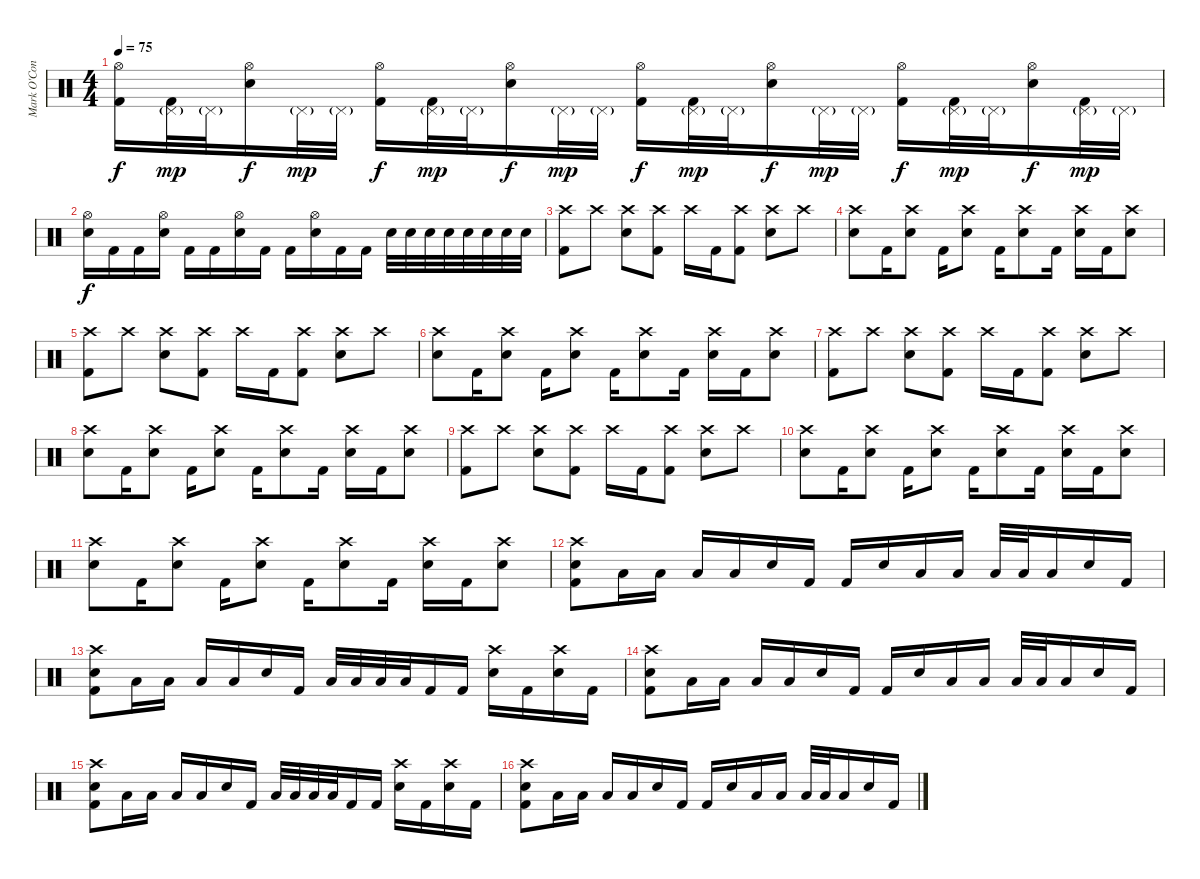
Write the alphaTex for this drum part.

\track ("Mark O'Connell (Drums)" "Mark O'Con") {instrument percussion}
\staff {score}
\articulation defaults
\ts (4 4)
\tempo 75
\clef neutral
\ks c
("Hi-Hat (open)" "Kick (hit) 2").16{dy f} ("Pedal Hi-Hat (hit)"{g} "Kick (hit) 2").32{dy mp} "Pedal Hi-Hat (hit)"{g}.32 ("Hi-Hat (open)" "Electric Snare (hit)").16{dy f} "Pedal Hi-Hat (hit)"{g}.32{dy mp} "Pedal Hi-Hat (hit)"{g}.32 ("Hi-Hat (open)" "Kick (hit) 2").16{dy f} ("Pedal Hi-Hat (hit)"{g} "Kick (hit) 2").32{dy mp} "Pedal Hi-Hat (hit)"{g}.32 ("Hi-Hat (open)" "Electric Snare (hit)").16{dy f} "Pedal Hi-Hat (hit)"{g}.32{dy mp} "Pedal Hi-Hat (hit)"{g}.32 ("Hi-Hat (open)" "Kick (hit) 2").16{dy f} ("Pedal Hi-Hat (hit)"{g} "Kick (hit) 2").32{dy mp} "Pedal Hi-Hat (hit)"{g}.32 ("Hi-Hat (open)" "Electric Snare (hit)").16{dy f} "Pedal Hi-Hat (hit)"{g}.32{dy mp} "Pedal Hi-Hat (hit)"{g}.32 ("Hi-Hat (open)" "Kick (hit) 2").16{dy f} ("Pedal Hi-Hat (hit)"{g} "Kick (hit) 2").32{dy mp} "Pedal Hi-Hat (hit)"{g}.32 ("Hi-Hat (open)" "Electric Snare (hit)").16{dy f} ("Pedal Hi-Hat (hit)"{g} "Kick (hit) 2").32{dy mp} "Pedal Hi-Hat (hit)"{g}.32 |
("Hi-Hat (open)" "Electric Snare (hit)").16{dy f} "Kick (hit) 2".16 "Kick (hit) 2".16 ("Hi-Hat (open)" "Electric Snare (hit)").16 "Kick (hit) 2".16 "Kick (hit) 2".16 ("Hi-Hat (open)" "Electric Snare (hit)").16 "Kick (hit) 2".16 "Kick (hit) 2".16 ("Hi-Hat (open)" "Electric Snare (hit)").16 "Kick (hit) 2".16 "Kick (hit) 2".16 "Electric Snare (hit)".32 "Electric Snare (hit)".32 "Electric Snare (hit)".32 "Electric Snare (hit)".32 "Electric Snare (hit)".32 "Electric Snare (hit)".32 "Electric Snare (hit)".32 "Electric Snare (hit)".32 |
("Crash high (hit)" "Kick (hit) 2").8 "Crash high (hit)".8 ("Crash high (hit)" "Electric Snare (hit)").8 ("Crash high (hit)" "Kick (hit) 2").8 "Crash high (hit)".16 "Kick (hit) 2".16 ("Crash high (hit)" "Kick (hit) 2").8 ("Crash high (hit)" "Electric Snare (hit)").8 "Crash high (hit)".8 |
("Crash high (hit)" "Electric Snare (hit)").8 "Kick (hit) 2".16 ("Crash high (hit)" "Electric Snare (hit)").8 "Kick (hit) 2".16 ("Crash high (hit)" "Electric Snare (hit)").8 "Kick (hit) 2".16 ("Crash high (hit)" "Electric Snare (hit)").8 "Kick (hit) 2".16 ("Crash high (hit)" "Electric Snare (hit)").16 "Kick (hit) 2".16 ("Crash high (hit)" "Electric Snare (hit)").8 |
("Crash high (hit)" "Kick (hit) 2").8 "Crash high (hit)".8 ("Crash high (hit)" "Electric Snare (hit)").8 ("Crash high (hit)" "Kick (hit) 2").8 "Crash high (hit)".16 "Kick (hit) 2".16 ("Crash high (hit)" "Kick (hit) 2").8 ("Crash high (hit)" "Electric Snare (hit)").8 "Crash high (hit)".8 |
("Crash high (hit)" "Electric Snare (hit)").8 "Kick (hit) 2".16 ("Crash high (hit)" "Electric Snare (hit)").8 "Kick (hit) 2".16 ("Crash high (hit)" "Electric Snare (hit)").8 "Kick (hit) 2".16 ("Crash high (hit)" "Electric Snare (hit)").8 "Kick (hit) 2".16 ("Crash high (hit)" "Electric Snare (hit)").16 "Kick (hit) 2".16 ("Crash high (hit)" "Electric Snare (hit)").8 |
("Crash high (hit)" "Kick (hit) 2").8 "Crash high (hit)".8 ("Crash high (hit)" "Electric Snare (hit)").8 ("Crash high (hit)" "Kick (hit) 2").8 "Crash high (hit)".16 "Kick (hit) 2".16 ("Crash high (hit)" "Kick (hit) 2").8 ("Crash high (hit)" "Electric Snare (hit)").8 "Crash high (hit)".8 |
("Crash high (hit)" "Electric Snare (hit)").8 "Kick (hit) 2".16 ("Crash high (hit)" "Electric Snare (hit)").8 "Kick (hit) 2".16 ("Crash high (hit)" "Electric Snare (hit)").8 "Kick (hit) 2".16 ("Crash high (hit)" "Electric Snare (hit)").8 "Kick (hit) 2".16 ("Crash high (hit)" "Electric Snare (hit)").16 "Kick (hit) 2".16 ("Crash high (hit)" "Electric Snare (hit)").8 |
("Crash high (hit)" "Kick (hit) 2").8 "Crash high (hit)".8 ("Crash high (hit)" "Electric Snare (hit)").8 ("Crash high (hit)" "Kick (hit) 2").8 "Crash high (hit)".16 "Kick (hit) 2".16 ("Crash high (hit)" "Kick (hit) 2").8 ("Crash high (hit)" "Electric Snare (hit)").8 "Crash high (hit)".8 |
("Crash high (hit)" "Electric Snare (hit)").8 "Kick (hit) 2".16 ("Crash high (hit)" "Electric Snare (hit)").8 "Kick (hit) 2".16 ("Crash high (hit)" "Electric Snare (hit)").8 "Kick (hit) 2".16 ("Crash high (hit)" "Electric Snare (hit)").8 "Kick (hit) 2".16 ("Crash high (hit)" "Electric Snare (hit)").16 "Kick (hit) 2".16 ("Crash high (hit)" "Electric Snare (hit)").8 |
("Crash high (hit)" "Electric Snare (hit)").8 "Kick (hit) 2".16 ("Crash high (hit)" "Electric Snare (hit)").8 "Kick (hit) 2".16 ("Crash high (hit)" "Electric Snare (hit)").8 "Kick (hit) 2".16 ("Crash high (hit)" "Electric Snare (hit)").8 "Kick (hit) 2".16 ("Crash high (hit)" "Electric Snare (hit)").16 "Kick (hit) 2".16 ("Crash high (hit)" "Electric Snare (hit)").8 |
("Crash high (hit)" "Electric Snare (hit)" "Kick (hit) 2").8 "Low Tom (hit)".16 "Low Tom (hit)".16 "Low Tom (hit)".16 "Low Tom (hit)".16 "Electric Snare (hit)".16 "Kick (hit) 2".16 "Kick (hit) 2".16 "Electric Snare (hit)".16 "Low Tom (hit)".16 "Low Tom (hit)".16 "Low Tom (hit)".32 "Low Tom (hit)".32 "Low Tom (hit)".16 "Electric Snare (hit)".16 "Kick (hit) 2".16 |
("Crash high (hit)" "Electric Snare (hit)" "Kick (hit) 2").8 "Low Tom (hit)".16 "Low Tom (hit)".16 "Low Tom (hit)".16 "Low Tom (hit)".16 "Electric Snare (hit)".16 "Kick (hit) 2".16 "Low Tom (hit)".32 "Low Tom (hit)".32 "Low Tom (hit)".32 "Low Tom (hit)".32 "Kick (hit) 2".16 "Kick (hit) 2".16 ("Crash high (hit)" "Electric Snare (hit)").16 "Kick (hit) 2".16 ("Crash high (hit)" "Electric Snare (hit)").16 "Kick (hit) 2".16 |
("Crash high (hit)" "Electric Snare (hit)" "Kick (hit) 2").8 "Low Tom (hit)".16 "Low Tom (hit)".16 "Low Tom (hit)".16 "Low Tom (hit)".16 "Electric Snare (hit)".16 "Kick (hit) 2".16 "Kick (hit) 2".16 "Electric Snare (hit)".16 "Low Tom (hit)".16 "Low Tom (hit)".16 "Low Tom (hit)".32 "Low Tom (hit)".32 "Low Tom (hit)".16 "Electric Snare (hit)".16 "Kick (hit) 2".16 |
("Crash high (hit)" "Electric Snare (hit)" "Kick (hit) 2").8 "Low Tom (hit)".16 "Low Tom (hit)".16 "Low Tom (hit)".16 "Low Tom (hit)".16 "Electric Snare (hit)".16 "Kick (hit) 2".16 "Low Tom (hit)".32 "Low Tom (hit)".32 "Low Tom (hit)".32 "Low Tom (hit)".32 "Kick (hit) 2".16 "Kick (hit) 2".16 ("Crash high (hit)" "Electric Snare (hit)").16 "Kick (hit) 2".16 ("Crash high (hit)" "Electric Snare (hit)").16 "Kick (hit) 2".16 |
("Crash high (hit)" "Electric Snare (hit)" "Kick (hit) 2").8 "Low Tom (hit)".16 "Low Tom (hit)".16 "Low Tom (hit)".16 "Low Tom (hit)".16 "Electric Snare (hit)".16 "Kick (hit) 2".16 "Kick (hit) 2".16 "Electric Snare (hit)".16 "Low Tom (hit)".16 "Low Tom (hit)".16 "Low Tom (hit)".32 "Low Tom (hit)".32 "Low Tom (hit)".16 "Electric Snare (hit)".16 "Kick (hit) 2".16
